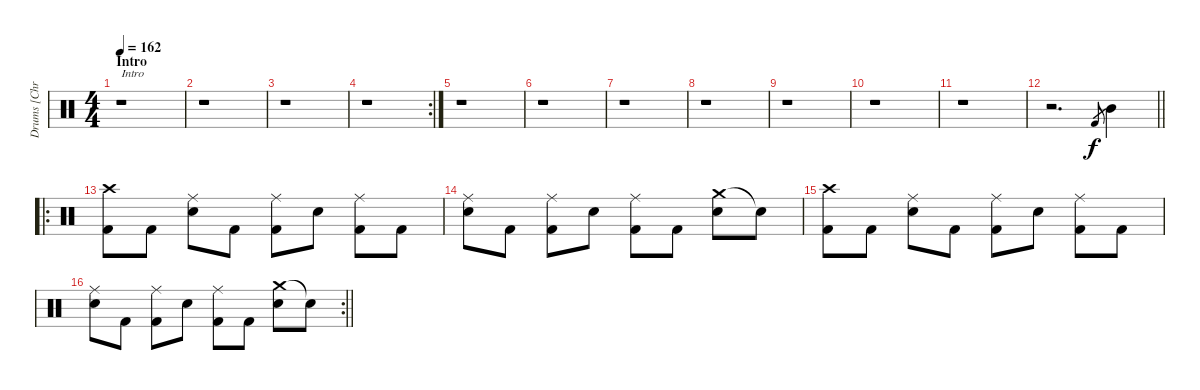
\track ("Drums [Chris Maitland]" "Drums [Chr") {instrument percussion}
\staff {score}
\articulation defaults
\ts (4 4)
\section ("" "Intro")
\tempo 162
\clef neutral
\ks c
r.1{txt "Intro" dy f} |
r.1 |
r.1 |
\rc 2
r.1 |
r.1 |
r.1 |
r.1 |
r.1 |
r.1 |
r.1 |
r.1 |
\barLineRight lightlight
r.2{d} "Kick (hit) 2".8{gr} "Mid Tom (hit)".4 |
\ro
\section ("" "")
("Crash high (hit)" "Kick (hit) 2").8 "Kick (hit) 2".8 ("Ride (middle)" "Electric Snare (hit)").8 "Kick (hit) 2".8 ("Ride (middle)" "Kick (hit) 2").8 "Electric Snare (hit)".8 ("Ride (middle)" "Kick (hit) 2").8 "Kick (hit) 2".8 |
("Ride (middle)" "Electric Snare (hit)").8 "Kick (hit) 2".8 ("Ride (middle)" "Kick (hit) 2").8 "Electric Snare (hit)".8 ("Ride (middle)" "Kick (hit) 2").8 "Kick (hit) 2".8 ("Crash medium (hit)" "Electric Snare (hit)").8 "Snare (hit)"{t}.8 |
("Crash high (hit)" "Kick (hit) 2").8 "Kick (hit) 2".8 ("Ride (middle)" "Electric Snare (hit)").8 "Kick (hit) 2".8 ("Ride (middle)" "Kick (hit) 2").8 "Electric Snare (hit)".8 ("Ride (middle)" "Kick (hit) 2").8 "Kick (hit) 2".8 |
\rc 2
\barLineRight lightlight
("Ride (middle)" "Electric Snare (hit)").8 "Kick (hit) 2".8 ("Ride (middle)" "Kick (hit) 2").8 "Electric Snare (hit)".8 ("Ride (middle)" "Kick (hit) 2").8 "Kick (hit) 2".8 ("Crash medium (hit)" "Electric Snare (hit)").8 "Snare (hit)"{t}.8
